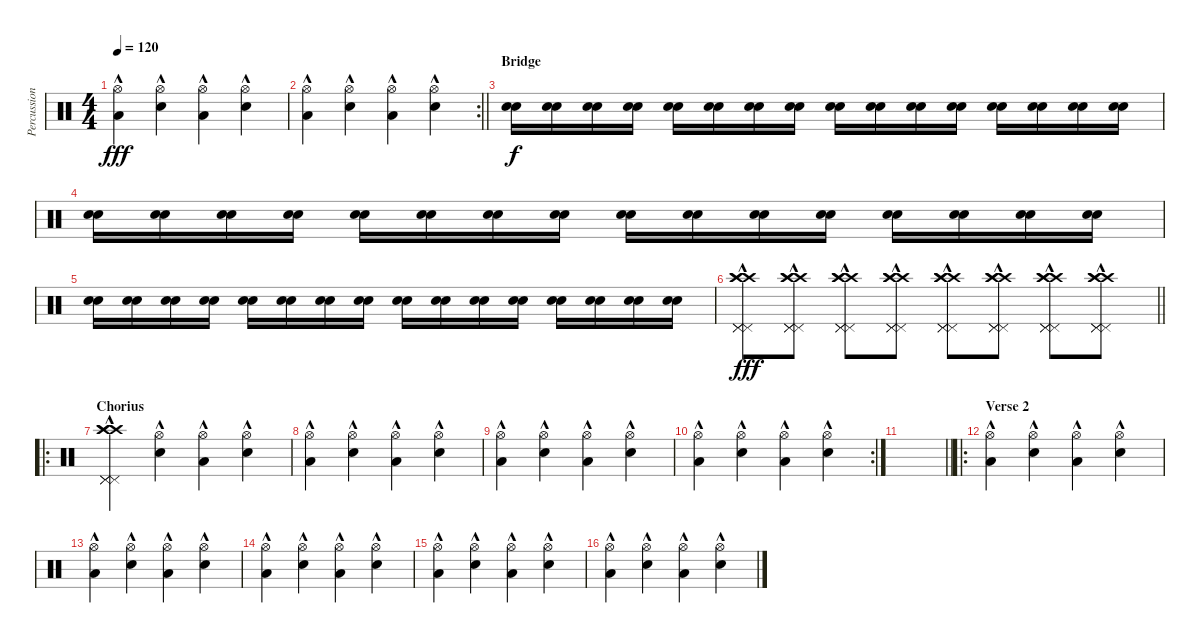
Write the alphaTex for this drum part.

\track ("Percussion" "Percussion") {instrument percussion}
\staff {score}
\articulation defaults
\ts (4 4)
\tempo 120
\clef neutral
\ks c
("Hi-Hat (open)" "Low Floor Tom (hit)"{hac}).4{dy fff} ("Hi-Hat (open)" "Electric Snare (hit)"{hac}).4 ("Hi-Hat (open)" "Low Floor Tom (hit)"{hac}).4 ("Hi-Hat (open)" "Electric Snare (hit)"{hac}).4 |
\rc 2
\barLineRight lightlight
("Hi-Hat (open)" "Low Floor Tom (hit)"{hac}).4 ("Hi-Hat (open)" "Electric Snare (hit)"{hac}).4 ("Hi-Hat (open)" "Low Floor Tom (hit)"{hac}).4 ("Hi-Hat (open)" "Electric Snare (hit)"{hac}).4 |
\section ("" "Bridge")
("Electric Snare (hit)" "Electric Snare (hit)").16{dy f} ("Electric Snare (hit)" "Electric Snare (hit)").16 ("Electric Snare (hit)" "Electric Snare (hit)").16 ("Electric Snare (hit)" "Electric Snare (hit)").16 ("Electric Snare (hit)" "Electric Snare (hit)").16 ("Electric Snare (hit)" "Electric Snare (hit)").16 ("Electric Snare (hit)" "Electric Snare (hit)").16 ("Electric Snare (hit)" "Electric Snare (hit)").16 ("Electric Snare (hit)" "Electric Snare (hit)").16 ("Electric Snare (hit)" "Electric Snare (hit)").16 ("Electric Snare (hit)" "Electric Snare (hit)").16 ("Electric Snare (hit)" "Electric Snare (hit)").16 ("Electric Snare (hit)" "Electric Snare (hit)").16 ("Electric Snare (hit)" "Electric Snare (hit)").16 ("Electric Snare (hit)" "Electric Snare (hit)").16 ("Electric Snare (hit)" "Electric Snare (hit)").16 |
("Electric Snare (hit)" "Electric Snare (hit)").16 ("Electric Snare (hit)" "Electric Snare (hit)").16 ("Electric Snare (hit)" "Electric Snare (hit)").16 ("Electric Snare (hit)" "Electric Snare (hit)").16 ("Electric Snare (hit)" "Electric Snare (hit)").16 ("Electric Snare (hit)" "Electric Snare (hit)").16 ("Electric Snare (hit)" "Electric Snare (hit)").16 ("Electric Snare (hit)" "Electric Snare (hit)").16 ("Electric Snare (hit)" "Electric Snare (hit)").16 ("Electric Snare (hit)" "Electric Snare (hit)").16 ("Electric Snare (hit)" "Electric Snare (hit)").16 ("Electric Snare (hit)" "Electric Snare (hit)").16 ("Electric Snare (hit)" "Electric Snare (hit)").16 ("Electric Snare (hit)" "Electric Snare (hit)").16 ("Electric Snare (hit)" "Electric Snare (hit)").16 ("Electric Snare (hit)" "Electric Snare (hit)").16 |
("Electric Snare (hit)" "Electric Snare (hit)").16 ("Electric Snare (hit)" "Electric Snare (hit)").16 ("Electric Snare (hit)" "Electric Snare (hit)").16 ("Electric Snare (hit)" "Electric Snare (hit)").16 ("Electric Snare (hit)" "Electric Snare (hit)").16 ("Electric Snare (hit)" "Electric Snare (hit)").16 ("Electric Snare (hit)" "Electric Snare (hit)").16 ("Electric Snare (hit)" "Electric Snare (hit)").16 ("Electric Snare (hit)" "Electric Snare (hit)").16 ("Electric Snare (hit)" "Electric Snare (hit)").16 ("Electric Snare (hit)" "Electric Snare (hit)").16 ("Electric Snare (hit)" "Electric Snare (hit)").16 ("Electric Snare (hit)" "Electric Snare (hit)").16 ("Electric Snare (hit)" "Electric Snare (hit)").16 ("Electric Snare (hit)" "Electric Snare (hit)").16 ("Electric Snare (hit)" "Electric Snare (hit)").16 |
\barLineRight lightlight
("Pedal Hi-Hat (hit)"{hac} "Pedal Hi-Hat (hit)"{hac} "Pedal Hi-Hat (hit)"{hac} "Crash high (hit)"{hac} "Crash high (hit)"{hac} "Crash high (hit)"{hac}).8{dy fff} ("Pedal Hi-Hat (hit)"{hac} "Pedal Hi-Hat (hit)"{hac} "Pedal Hi-Hat (hit)"{hac} "Crash high (hit)"{hac} "Crash high (hit)"{hac} "Crash high (hit)"{hac}).8 ("Pedal Hi-Hat (hit)"{hac} "Pedal Hi-Hat (hit)"{hac} "Pedal Hi-Hat (hit)"{hac} "Crash high (hit)"{hac} "Crash high (hit)"{hac} "Crash high (hit)"{hac}).8 ("Pedal Hi-Hat (hit)"{hac} "Pedal Hi-Hat (hit)"{hac} "Pedal Hi-Hat (hit)"{hac} "Crash high (hit)"{hac} "Crash high (hit)"{hac} "Crash high (hit)"{hac}).8 ("Pedal Hi-Hat (hit)"{hac} "Pedal Hi-Hat (hit)"{hac} "Pedal Hi-Hat (hit)"{hac} "Crash high (hit)"{hac} "Crash high (hit)"{hac} "Crash high (hit)"{hac}).8 ("Pedal Hi-Hat (hit)"{hac} "Pedal Hi-Hat (hit)"{hac} "Pedal Hi-Hat (hit)"{hac} "Crash high (hit)"{hac} "Crash high (hit)"{hac} "Crash high (hit)"{hac}).8 ("Pedal Hi-Hat (hit)"{hac} "Pedal Hi-Hat (hit)"{hac} "Pedal Hi-Hat (hit)"{hac} "Crash high (hit)"{hac} "Crash high (hit)"{hac} "Crash high (hit)"{hac}).8 ("Pedal Hi-Hat (hit)"{hac} "Pedal Hi-Hat (hit)"{hac} "Pedal Hi-Hat (hit)"{hac} "Crash high (hit)"{hac} "Crash high (hit)"{hac} "Crash high (hit)"{hac}).8 |
\ro
\section ("" "Chorius")
("Pedal Hi-Hat (hit)" "Pedal Hi-Hat (hit)" "Pedal Hi-Hat (hit)"{hac} "Crash high (hit)" "Crash high (hit)" "Crash high (hit)"{hac}).4 ("Hi-Hat (open)" "Electric Snare (hit)"{hac}).4 ("Hi-Hat (open)" "Low Floor Tom (hit)"{hac}).4 ("Hi-Hat (open)" "Electric Snare (hit)"{hac}).4 |
("Hi-Hat (open)" "Low Floor Tom (hit)"{hac}).4 ("Hi-Hat (open)" "Electric Snare (hit)"{hac}).4 ("Hi-Hat (open)" "Low Floor Tom (hit)"{hac}).4 ("Hi-Hat (open)" "Electric Snare (hit)"{hac}).4 |
("Hi-Hat (open)" "Low Floor Tom (hit)"{hac}).4 ("Hi-Hat (open)" "Electric Snare (hit)"{hac}).4 ("Hi-Hat (open)" "Low Floor Tom (hit)"{hac}).4 ("Hi-Hat (open)" "Electric Snare (hit)"{hac}).4 |
\rc 2
("Hi-Hat (open)" "Low Floor Tom (hit)"{hac}).4 ("Hi-Hat (open)" "Electric Snare (hit)"{hac}).4 ("Hi-Hat (open)" "Low Floor Tom (hit)"{hac}).4 ("Hi-Hat (open)" "Electric Snare (hit)"{hac}).4 |
\barLineRight lightlight
|
\ro
\section ("" "Verse 2")
("Hi-Hat (open)" "Low Floor Tom (hit)"{hac}).4 ("Hi-Hat (open)" "Electric Snare (hit)"{hac}).4 ("Hi-Hat (open)" "Low Floor Tom (hit)"{hac}).4 ("Hi-Hat (open)" "Electric Snare (hit)"{hac}).4 |
("Hi-Hat (open)" "Low Floor Tom (hit)"{hac}).4 ("Hi-Hat (open)" "Electric Snare (hit)"{hac}).4 ("Hi-Hat (open)" "Low Floor Tom (hit)"{hac}).4 ("Hi-Hat (open)" "Electric Snare (hit)"{hac}).4 |
("Hi-Hat (open)" "Low Floor Tom (hit)"{hac}).4 ("Hi-Hat (open)" "Electric Snare (hit)"{hac}).4 ("Hi-Hat (open)" "Low Floor Tom (hit)"{hac}).4 ("Hi-Hat (open)" "Electric Snare (hit)"{hac}).4 |
("Hi-Hat (open)" "Low Floor Tom (hit)"{hac}).4 ("Hi-Hat (open)" "Electric Snare (hit)"{hac}).4 ("Hi-Hat (open)" "Low Floor Tom (hit)"{hac}).4 ("Hi-Hat (open)" "Electric Snare (hit)"{hac}).4 |
("Hi-Hat (open)" "Low Floor Tom (hit)"{hac}).4 ("Hi-Hat (open)" "Electric Snare (hit)"{hac}).4 ("Hi-Hat (open)" "Low Floor Tom (hit)"{hac}).4 ("Hi-Hat (open)" "Electric Snare (hit)"{hac}).4
